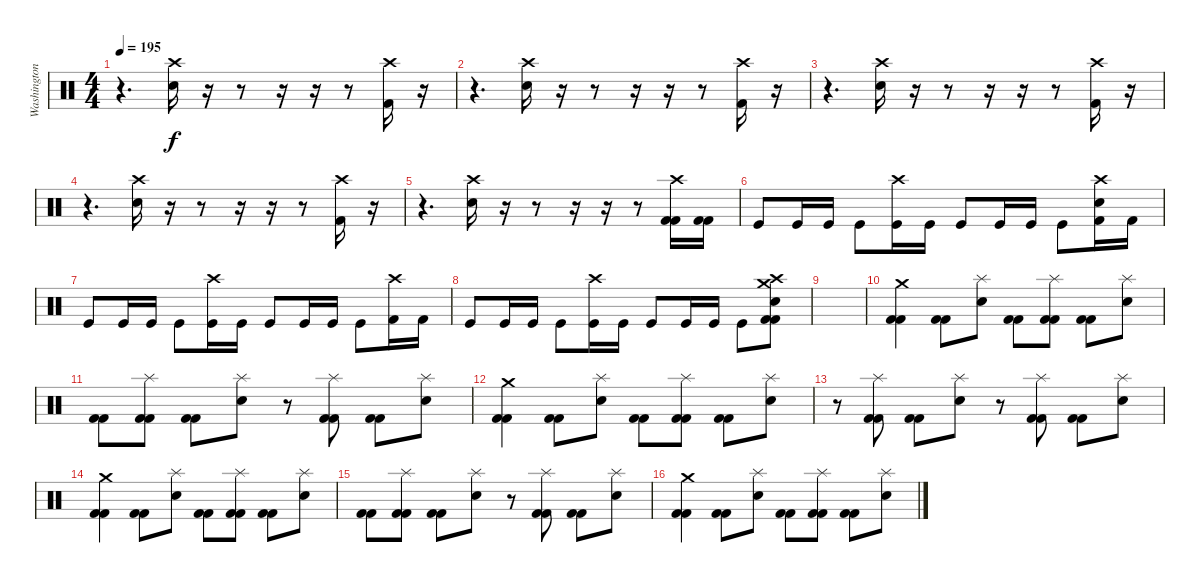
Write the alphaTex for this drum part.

\track ("Washington" "Washington") {solo instrument percussion}
\staff {score}
\articulation defaults
\ts (4 4)
\tempo 195
\clef neutral
\ks c
r.4{d dy f} ("Crash high (hit)" "Electric Snare (hit)").16 r.16 r.8 r.16 r.16 r.8 ("Crash high (hit)" "Kick (hit) 2").16 r.16 |
r.4{d} ("Crash high (hit)" "Electric Snare (hit)").16 r.16 r.8 r.16 r.16 r.8 ("Crash high (hit)" "Kick (hit) 2").16 r.16 |
r.4{d} ("Crash high (hit)" "Electric Snare (hit)").16 r.16 r.8 r.16 r.16 r.8 ("Crash high (hit)" "Kick (hit) 2").16 r.16 |
r.4{d} ("Crash high (hit)" "Electric Snare (hit)").16 r.16 r.8 r.16 r.16 r.8 ("Crash high (hit)" "Kick (hit) 2").16 r.16 |
r.4{d} ("Crash high (hit)" "Electric Snare (hit)").16 r.16 r.8 r.16 r.16 r.8 ("Crash high (hit)" "Kick (hit) 2" "Kick (hit) 2").16 ("Kick (hit) 2" "Kick (hit) 2").16 |
"Kick (hit)".8 "Kick (hit)".16 "Kick (hit)".16 "Kick (hit)".8 ("Crash high (hit)" "Kick (hit)").16 "Kick (hit)".16 "Kick (hit)".8 "Kick (hit)".16 "Kick (hit)".16 "Kick (hit)".8 ("Crash high (hit)" "Electric Snare (hit)" "Kick (hit) 2").16 "Kick (hit) 2".16 |
"Kick (hit)".8 "Kick (hit)".16 "Kick (hit)".16 "Kick (hit)".8 ("Crash high (hit)" "Kick (hit)").16 "Kick (hit)".16 "Kick (hit)".8 "Kick (hit)".16 "Kick (hit)".16 "Kick (hit)".8 ("Crash high (hit)" "Kick (hit) 2").16 "Kick (hit) 2".16 |
"Kick (hit)".8 "Kick (hit)".16 "Kick (hit)".16 "Kick (hit)".8 ("Crash high (hit)" "Kick (hit)").16 "Kick (hit)".16 "Kick (hit)".8 "Kick (hit)".16 "Kick (hit)".16 "Kick (hit)".8 ("Crash medium (hit)" "Crash high (hit)" "Electric Snare (hit)" "Kick (hit) 2" "Kick (hit) 2").8 |
|
("Crash medium (hit)" "Kick (hit) 2" "Kick (hit) 2").4 ("Kick (hit) 2" "Kick (hit) 2").8 ("Splash (hit)" "Electric Snare (hit)").8 ("Kick (hit) 2" "Kick (hit) 2").8 ("Splash (hit)" "Kick (hit) 2" "Kick (hit) 2").8 ("Kick (hit) 2" "Kick (hit) 2").8 ("Splash (hit)" "Electric Snare (hit)").8 |
("Kick (hit) 2" "Kick (hit) 2").8 ("Splash (hit)" "Kick (hit) 2" "Kick (hit) 2").8 ("Kick (hit) 2" "Kick (hit) 2").8 ("Splash (hit)" "Electric Snare (hit)").8 r.8 ("Splash (hit)" "Kick (hit) 2" "Kick (hit) 2").8 ("Kick (hit) 2" "Kick (hit) 2").8 ("Splash (hit)" "Electric Snare (hit)").8 |
("Crash medium (hit)" "Kick (hit) 2" "Kick (hit) 2").4 ("Kick (hit) 2" "Kick (hit) 2").8 ("Splash (hit)" "Electric Snare (hit)").8 ("Kick (hit) 2" "Kick (hit) 2").8 ("Splash (hit)" "Kick (hit) 2" "Kick (hit) 2").8 ("Kick (hit) 2" "Kick (hit) 2").8 ("Splash (hit)" "Electric Snare (hit)").8 |
r.8 ("Splash (hit)" "Kick (hit) 2" "Kick (hit) 2").8 ("Kick (hit) 2" "Kick (hit) 2").8 ("Splash (hit)" "Electric Snare (hit)").8 r.8 ("Splash (hit)" "Kick (hit) 2" "Kick (hit) 2").8 ("Kick (hit) 2" "Kick (hit) 2").8 ("Splash (hit)" "Electric Snare (hit)").8 |
("Crash medium (hit)" "Kick (hit) 2" "Kick (hit) 2").4 ("Kick (hit) 2" "Kick (hit) 2").8 ("Splash (hit)" "Electric Snare (hit)").8 ("Kick (hit) 2" "Kick (hit) 2").8 ("Splash (hit)" "Kick (hit) 2" "Kick (hit) 2").8 ("Kick (hit) 2" "Kick (hit) 2").8 ("Splash (hit)" "Electric Snare (hit)").8 |
("Kick (hit) 2" "Kick (hit) 2").8 ("Splash (hit)" "Kick (hit) 2" "Kick (hit) 2").8 ("Kick (hit) 2" "Kick (hit) 2").8 ("Splash (hit)" "Electric Snare (hit)").8 r.8 ("Splash (hit)" "Kick (hit) 2" "Kick (hit) 2").8 ("Kick (hit) 2" "Kick (hit) 2").8 ("Splash (hit)" "Electric Snare (hit)").8 |
("Crash medium (hit)" "Kick (hit) 2" "Kick (hit) 2").4 ("Kick (hit) 2" "Kick (hit) 2").8 ("Splash (hit)" "Electric Snare (hit)").8 ("Kick (hit) 2" "Kick (hit) 2").8 ("Splash (hit)" "Kick (hit) 2" "Kick (hit) 2").8 ("Kick (hit) 2" "Kick (hit) 2").8 ("Splash (hit)" "Electric Snare (hit)").8
